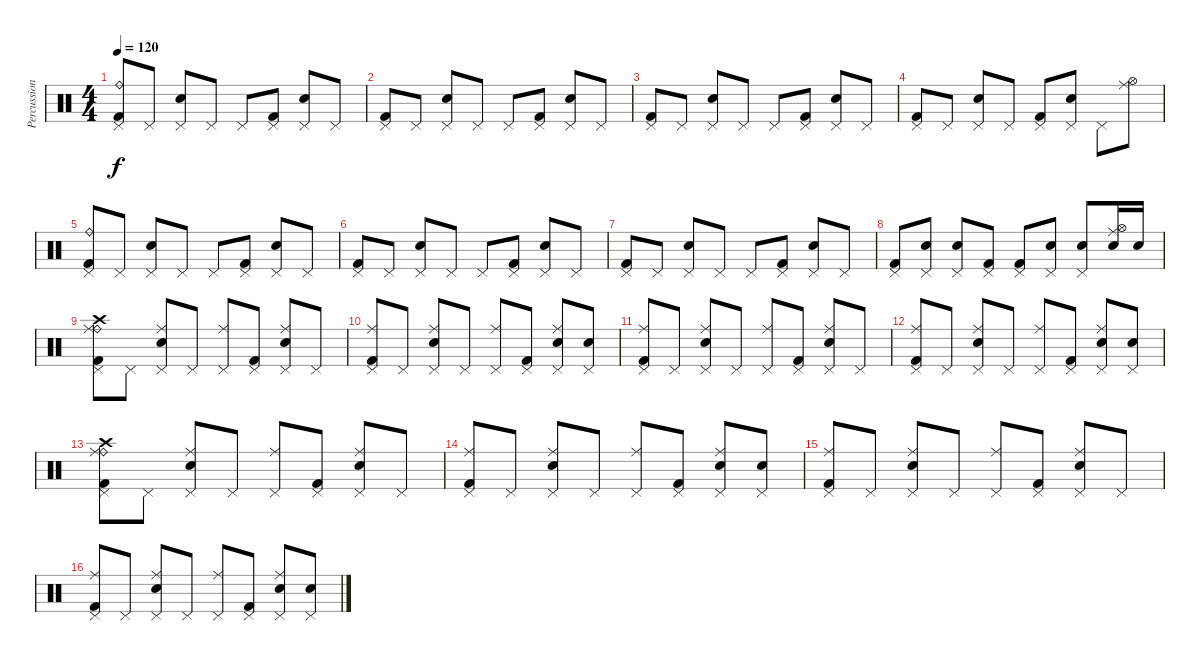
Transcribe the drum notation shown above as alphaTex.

\track ("Percussion" "Percussion") {instrument percussion}
\staff {score}
\articulation defaults
\ts (4 4)
\tempo 120
\clef neutral
\ks c
("Pedal Hi-Hat (hit)" "Kick (hit) 2" "Ride (bell)").8{dy f} "Pedal Hi-Hat (hit)".8 ("Pedal Hi-Hat (hit)" "Electric Snare (hit)").8 "Pedal Hi-Hat (hit)".8 "Pedal Hi-Hat (hit)".8 ("Pedal Hi-Hat (hit)" "Kick (hit) 2").8 ("Pedal Hi-Hat (hit)" "Electric Snare (hit)").8 "Pedal Hi-Hat (hit)".8 |
("Pedal Hi-Hat (hit)" "Kick (hit) 2").8 "Pedal Hi-Hat (hit)".8 ("Pedal Hi-Hat (hit)" "Electric Snare (hit)").8 "Pedal Hi-Hat (hit)".8 "Pedal Hi-Hat (hit)".8 ("Pedal Hi-Hat (hit)" "Kick (hit) 2").8 ("Pedal Hi-Hat (hit)" "Electric Snare (hit)").8 "Pedal Hi-Hat (hit)".8 |
("Pedal Hi-Hat (hit)" "Kick (hit) 2").8 "Pedal Hi-Hat (hit)".8 ("Pedal Hi-Hat (hit)" "Electric Snare (hit)").8 "Pedal Hi-Hat (hit)".8 "Pedal Hi-Hat (hit)".8 ("Pedal Hi-Hat (hit)" "Kick (hit) 2").8 ("Pedal Hi-Hat (hit)" "Electric Snare (hit)").8 "Pedal Hi-Hat (hit)".8 |
("Pedal Hi-Hat (hit)" "Kick (hit) 2").8 "Pedal Hi-Hat (hit)".8 ("Pedal Hi-Hat (hit)" "Electric Snare (hit)").8 "Pedal Hi-Hat (hit)".8 ("Pedal Hi-Hat (hit)" "Kick (hit) 2").8 ("Pedal Hi-Hat (hit)" "Electric Snare (hit)").8 "Pedal Hi-Hat (hit)".8 ("Hi-Hat (open)" "Ride (middle)").8 |
("Pedal Hi-Hat (hit)" "Kick (hit) 2" "Ride (bell)").8 "Pedal Hi-Hat (hit)".8 ("Pedal Hi-Hat (hit)" "Electric Snare (hit)").8 "Pedal Hi-Hat (hit)".8 "Pedal Hi-Hat (hit)".8 ("Pedal Hi-Hat (hit)" "Kick (hit) 2").8 ("Pedal Hi-Hat (hit)" "Electric Snare (hit)").8 "Pedal Hi-Hat (hit)".8 |
("Pedal Hi-Hat (hit)" "Kick (hit) 2").8 "Pedal Hi-Hat (hit)".8 ("Pedal Hi-Hat (hit)" "Electric Snare (hit)").8 "Pedal Hi-Hat (hit)".8 "Pedal Hi-Hat (hit)".8 ("Pedal Hi-Hat (hit)" "Kick (hit) 2").8 ("Pedal Hi-Hat (hit)" "Electric Snare (hit)").8 "Pedal Hi-Hat (hit)".8 |
("Pedal Hi-Hat (hit)" "Kick (hit) 2").8 "Pedal Hi-Hat (hit)".8 ("Pedal Hi-Hat (hit)" "Electric Snare (hit)").8 "Pedal Hi-Hat (hit)".8 "Pedal Hi-Hat (hit)".8 ("Pedal Hi-Hat (hit)" "Kick (hit) 2").8 ("Pedal Hi-Hat (hit)" "Electric Snare (hit)").8 "Pedal Hi-Hat (hit)".8 |
("Pedal Hi-Hat (hit)" "Kick (hit) 2").8 ("Pedal Hi-Hat (hit)" "Electric Snare (hit)").8 ("Pedal Hi-Hat (hit)" "Electric Snare (hit)").8 ("Pedal Hi-Hat (hit)" "Kick (hit) 2").8 ("Pedal Hi-Hat (hit)" "Kick (hit) 2").8 ("Pedal Hi-Hat (hit)" "Electric Snare (hit)").8 ("Pedal Hi-Hat (hit)" "Electric Snare (hit)").8 ("Hi-Hat (open)" "Electric Snare (hit)" "Ride (middle)").16 "Electric Snare (hit)".16 |
("Pedal Hi-Hat (hit)" "Kick (hit) 2" "Crash high (hit)" "Ride (bell)" "Ride (middle)").8 "Pedal Hi-Hat (hit)".8 ("Pedal Hi-Hat (hit)" "Electric Snare (hit)" "Ride (middle)").8 "Pedal Hi-Hat (hit)".8 ("Pedal Hi-Hat (hit)" "Ride (middle)").8 ("Pedal Hi-Hat (hit)" "Kick (hit) 2").8 ("Pedal Hi-Hat (hit)" "Electric Snare (hit)" "Ride (middle)").8 "Pedal Hi-Hat (hit)".8 |
("Pedal Hi-Hat (hit)" "Kick (hit) 2" "Ride (middle)").8 "Pedal Hi-Hat (hit)".8 ("Pedal Hi-Hat (hit)" "Electric Snare (hit)" "Ride (middle)").8 "Pedal Hi-Hat (hit)".8 ("Pedal Hi-Hat (hit)" "Ride (middle)").8 ("Pedal Hi-Hat (hit)" "Kick (hit) 2").8 ("Pedal Hi-Hat (hit)" "Electric Snare (hit)" "Ride (middle)").8 ("Pedal Hi-Hat (hit)" "Electric Snare (hit)").8 |
("Pedal Hi-Hat (hit)" "Kick (hit) 2" "Ride (middle)").8 "Pedal Hi-Hat (hit)".8 ("Pedal Hi-Hat (hit)" "Electric Snare (hit)" "Ride (middle)").8 "Pedal Hi-Hat (hit)".8 ("Pedal Hi-Hat (hit)" "Ride (middle)").8 ("Pedal Hi-Hat (hit)" "Kick (hit) 2").8 ("Pedal Hi-Hat (hit)" "Electric Snare (hit)" "Ride (middle)").8 "Pedal Hi-Hat (hit)".8 |
("Pedal Hi-Hat (hit)" "Kick (hit) 2" "Ride (middle)").8 "Pedal Hi-Hat (hit)".8 ("Pedal Hi-Hat (hit)" "Electric Snare (hit)" "Ride (middle)").8 "Pedal Hi-Hat (hit)".8 ("Pedal Hi-Hat (hit)" "Ride (middle)").8 ("Pedal Hi-Hat (hit)" "Kick (hit) 2").8 ("Pedal Hi-Hat (hit)" "Electric Snare (hit)" "Ride (middle)").8 ("Pedal Hi-Hat (hit)" "Electric Snare (hit)").8 |
("Pedal Hi-Hat (hit)" "Kick (hit) 2" "Crash high (hit)" "Ride (bell)" "Ride (middle)").8 "Pedal Hi-Hat (hit)".8 ("Pedal Hi-Hat (hit)" "Electric Snare (hit)" "Ride (middle)").8 "Pedal Hi-Hat (hit)".8 ("Pedal Hi-Hat (hit)" "Ride (middle)").8 ("Pedal Hi-Hat (hit)" "Kick (hit) 2").8 ("Pedal Hi-Hat (hit)" "Electric Snare (hit)" "Ride (middle)").8 "Pedal Hi-Hat (hit)".8 |
("Pedal Hi-Hat (hit)" "Kick (hit) 2" "Ride (middle)").8 "Pedal Hi-Hat (hit)".8 ("Pedal Hi-Hat (hit)" "Electric Snare (hit)" "Ride (middle)").8 "Pedal Hi-Hat (hit)".8 ("Pedal Hi-Hat (hit)" "Ride (middle)").8 ("Pedal Hi-Hat (hit)" "Kick (hit) 2").8 ("Pedal Hi-Hat (hit)" "Electric Snare (hit)" "Ride (middle)").8 ("Pedal Hi-Hat (hit)" "Electric Snare (hit)").8 |
("Pedal Hi-Hat (hit)" "Kick (hit) 2" "Ride (middle)").8 "Pedal Hi-Hat (hit)".8 ("Pedal Hi-Hat (hit)" "Electric Snare (hit)" "Ride (middle)").8 "Pedal Hi-Hat (hit)".8 ("Pedal Hi-Hat (hit)" "Ride (middle)").8 ("Pedal Hi-Hat (hit)" "Kick (hit) 2").8 ("Pedal Hi-Hat (hit)" "Electric Snare (hit)" "Ride (middle)").8 "Pedal Hi-Hat (hit)".8 |
("Pedal Hi-Hat (hit)" "Kick (hit) 2" "Ride (middle)").8 "Pedal Hi-Hat (hit)".8 ("Pedal Hi-Hat (hit)" "Electric Snare (hit)" "Ride (middle)").8 "Pedal Hi-Hat (hit)".8 ("Pedal Hi-Hat (hit)" "Ride (middle)").8 ("Pedal Hi-Hat (hit)" "Kick (hit) 2").8 ("Pedal Hi-Hat (hit)" "Electric Snare (hit)" "Ride (middle)").8 ("Pedal Hi-Hat (hit)" "Electric Snare (hit)").8
